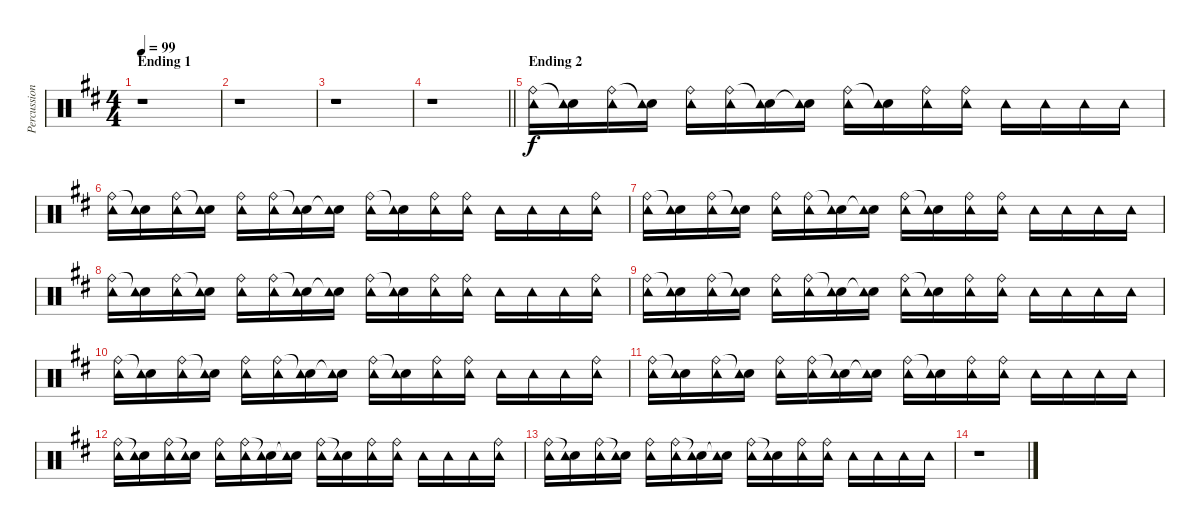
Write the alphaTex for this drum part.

\track ("Percussion" "Percussion") {instrument percussion}
\staff {score}
\articulation defaults
\ts (4 4)
\section ("" "Ending 1")
\tempo 99
\clef neutral
\ks d
r.1{dy f} |
r.1 |
r.1 |
\barLineRight lightlight
r.1 |
\section ("" "Ending 2")
("Ride (bell)" "Tambourine (hit)").16 ("Snare (hit)"{t} "Tambourine (hit)").16 ("Ride (bell)" "Tambourine (hit)").16 ("Snare (hit)"{t} "Tambourine (hit)").16 ("Ride (bell)" "Tambourine (hit)").16 ("Ride (bell)" "Tambourine (hit)").16 ("Snare (hit)"{t} "Tambourine (hit)").16 ("Snare (hit)"{t} "Tambourine (hit)").16 ("Ride (bell)" "Tambourine (hit)").16 ("Snare (hit)"{t} "Tambourine (hit)").16 ("Ride (bell)" "Tambourine (hit)").16 ("Ride (bell)" "Tambourine (hit)").16 "Tambourine (hit)".16 "Tambourine (hit)".16 "Tambourine (hit)".16 "Tambourine (hit)".16 |
("Ride (bell)" "Tambourine (hit)").16 ("Snare (hit)"{t} "Tambourine (hit)").16 ("Ride (bell)" "Tambourine (hit)").16 ("Snare (hit)"{t} "Tambourine (hit)").16 ("Ride (bell)" "Tambourine (hit)").16 ("Ride (bell)" "Tambourine (hit)").16 ("Snare (hit)"{t} "Tambourine (hit)").16 ("Snare (hit)"{t} "Tambourine (hit)").16 ("Ride (bell)" "Tambourine (hit)").16 ("Snare (hit)"{t} "Tambourine (hit)").16 ("Ride (bell)" "Tambourine (hit)").16 ("Ride (bell)" "Tambourine (hit)").16 "Tambourine (hit)".16 "Tambourine (hit)".16 "Tambourine (hit)".16 ("Ride (bell)" "Tambourine (hit)").16 |
("Ride (bell)" "Tambourine (hit)").16 ("Snare (hit)"{t} "Tambourine (hit)").16 ("Ride (bell)" "Tambourine (hit)").16 ("Snare (hit)"{t} "Tambourine (hit)").16 ("Ride (bell)" "Tambourine (hit)").16 ("Ride (bell)" "Tambourine (hit)").16 ("Snare (hit)"{t} "Tambourine (hit)").16 ("Snare (hit)"{t} "Tambourine (hit)").16 ("Ride (bell)" "Tambourine (hit)").16 ("Snare (hit)"{t} "Tambourine (hit)").16 ("Ride (bell)" "Tambourine (hit)").16 ("Ride (bell)" "Tambourine (hit)").16 "Tambourine (hit)".16 "Tambourine (hit)".16 "Tambourine (hit)".16 "Tambourine (hit)".16 |
("Ride (bell)" "Tambourine (hit)").16 ("Snare (hit)"{t} "Tambourine (hit)").16 ("Ride (bell)" "Tambourine (hit)").16 ("Snare (hit)"{t} "Tambourine (hit)").16 ("Ride (bell)" "Tambourine (hit)").16 ("Ride (bell)" "Tambourine (hit)").16 ("Snare (hit)"{t} "Tambourine (hit)").16 ("Snare (hit)"{t} "Tambourine (hit)").16 ("Ride (bell)" "Tambourine (hit)").16 ("Snare (hit)"{t} "Tambourine (hit)").16 ("Ride (bell)" "Tambourine (hit)").16 ("Ride (bell)" "Tambourine (hit)").16 "Tambourine (hit)".16 "Tambourine (hit)".16 "Tambourine (hit)".16 ("Ride (bell)" "Tambourine (hit)").16 |
("Ride (bell)" "Tambourine (hit)").16 ("Snare (hit)"{t} "Tambourine (hit)").16 ("Ride (bell)" "Tambourine (hit)").16 ("Snare (hit)"{t} "Tambourine (hit)").16 ("Ride (bell)" "Tambourine (hit)").16 ("Ride (bell)" "Tambourine (hit)").16 ("Snare (hit)"{t} "Tambourine (hit)").16 ("Snare (hit)"{t} "Tambourine (hit)").16 ("Ride (bell)" "Tambourine (hit)").16 ("Snare (hit)"{t} "Tambourine (hit)").16 ("Ride (bell)" "Tambourine (hit)").16 ("Ride (bell)" "Tambourine (hit)").16 "Tambourine (hit)".16 "Tambourine (hit)".16 "Tambourine (hit)".16 "Tambourine (hit)".16 |
("Ride (bell)" "Tambourine (hit)").16 ("Snare (hit)"{t} "Tambourine (hit)").16 ("Ride (bell)" "Tambourine (hit)").16 ("Snare (hit)"{t} "Tambourine (hit)").16 ("Ride (bell)" "Tambourine (hit)").16 ("Ride (bell)" "Tambourine (hit)").16 ("Snare (hit)"{t} "Tambourine (hit)").16 ("Snare (hit)"{t} "Tambourine (hit)").16 ("Ride (bell)" "Tambourine (hit)").16 ("Snare (hit)"{t} "Tambourine (hit)").16 ("Ride (bell)" "Tambourine (hit)").16 ("Ride (bell)" "Tambourine (hit)").16 "Tambourine (hit)".16 "Tambourine (hit)".16 "Tambourine (hit)".16 ("Ride (bell)" "Tambourine (hit)").16 |
("Ride (bell)" "Tambourine (hit)").16 ("Snare (hit)"{t} "Tambourine (hit)").16 ("Ride (bell)" "Tambourine (hit)").16 ("Snare (hit)"{t} "Tambourine (hit)").16 ("Ride (bell)" "Tambourine (hit)").16 ("Ride (bell)" "Tambourine (hit)").16 ("Snare (hit)"{t} "Tambourine (hit)").16 ("Snare (hit)"{t} "Tambourine (hit)").16 ("Ride (bell)" "Tambourine (hit)").16 ("Snare (hit)"{t} "Tambourine (hit)").16 ("Ride (bell)" "Tambourine (hit)").16 ("Ride (bell)" "Tambourine (hit)").16 "Tambourine (hit)".16 "Tambourine (hit)".16 "Tambourine (hit)".16 "Tambourine (hit)".16 |
("Ride (bell)" "Tambourine (hit)").16 ("Snare (hit)"{t} "Tambourine (hit)").16 ("Ride (bell)" "Tambourine (hit)").16 ("Snare (hit)"{t} "Tambourine (hit)").16 ("Ride (bell)" "Tambourine (hit)").16 ("Ride (bell)" "Tambourine (hit)").16 ("Snare (hit)"{t} "Tambourine (hit)").16 ("Snare (hit)"{t} "Tambourine (hit)").16 ("Ride (bell)" "Tambourine (hit)").16 ("Snare (hit)"{t} "Tambourine (hit)").16 ("Ride (bell)" "Tambourine (hit)").16 ("Ride (bell)" "Tambourine (hit)").16 "Tambourine (hit)".16 "Tambourine (hit)".16 "Tambourine (hit)".16 ("Ride (bell)" "Tambourine (hit)").16 |
("Ride (bell)" "Tambourine (hit)").16 ("Snare (hit)"{t} "Tambourine (hit)").16 ("Ride (bell)" "Tambourine (hit)").16 ("Snare (hit)"{t} "Tambourine (hit)").16 ("Ride (bell)" "Tambourine (hit)").16 ("Ride (bell)" "Tambourine (hit)").16 ("Snare (hit)"{t} "Tambourine (hit)").16 ("Snare (hit)"{t} "Tambourine (hit)").16 ("Ride (bell)" "Tambourine (hit)").16 ("Snare (hit)"{t} "Tambourine (hit)").16 ("Ride (bell)" "Tambourine (hit)").16 ("Ride (bell)" "Tambourine (hit)").16 "Tambourine (hit)".16 "Tambourine (hit)".16 "Tambourine (hit)".16 "Tambourine (hit)".16 |
r.1
